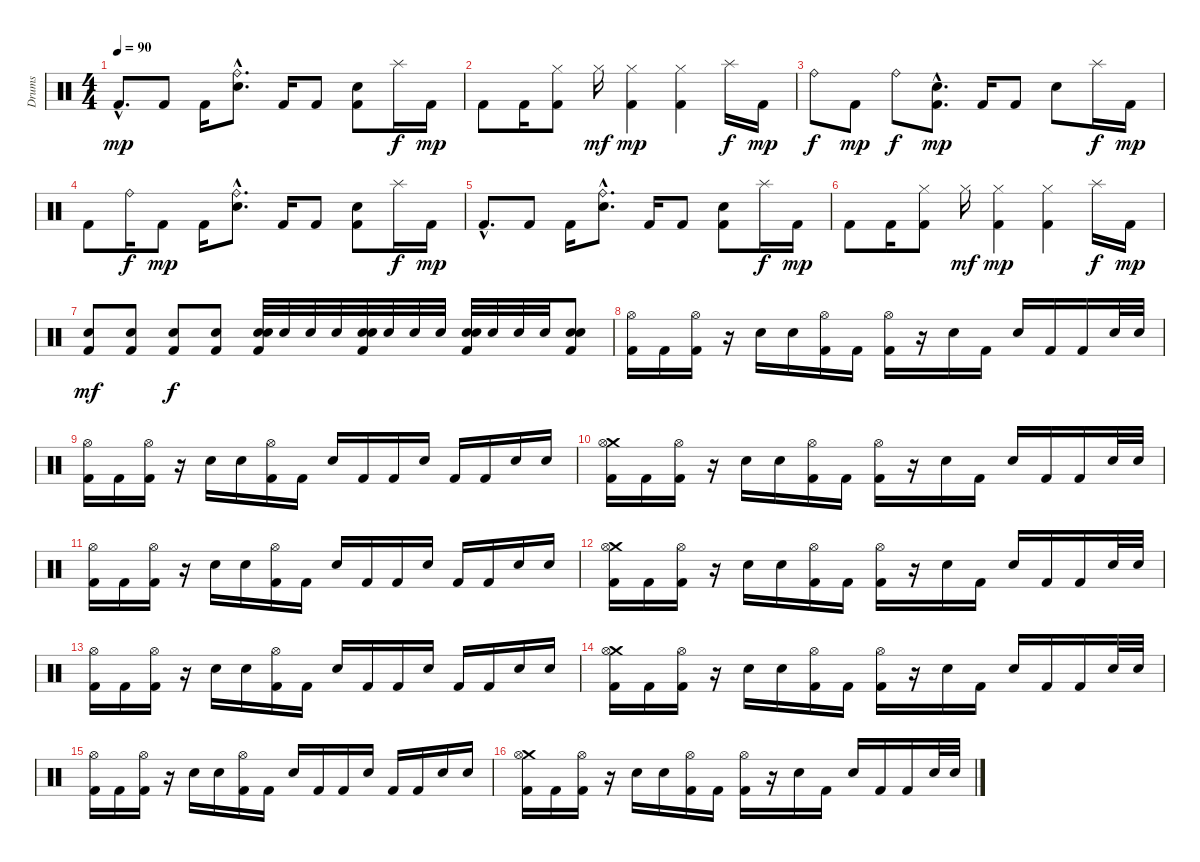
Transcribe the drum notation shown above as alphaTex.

\track ("Drums" "Drums") {instrument percussion}
\staff {score}
\articulation defaults
\ts (4 4)
\tempo 90
\clef neutral
\ks c "Kick (hit) 2"{hac}.8{d dy mp} "Kick (hit) 2".8 "Kick (hit) 2".16
("Ride (bell)"{hac} "Snare (hit) 2"{hac}).8{d} "Kick (hit) 2".16 "Kick (hit) 2".8 ("Snare (hit) 2" "Kick (hit) 2").8 "Splash (hit)".16{dy f} "Kick (hit) 2".16{dy mp} |
"Kick (hit) 2".8 "Kick (hit) 2".16 ("Hi-Hat (closed)" "Kick (hit) 2").8 "Hi-Hat (closed)".16{dy mf} ("Hi-Hat (closed)" "Kick (hit) 2").4{dy mp} ("Hi-Hat (closed)" "Kick (hit) 2").4 "Splash (hit)".16{dy f} "Kick (hit) 2".16{dy mp} |
"Ride (bell)".8{dy f} "Kick (hit) 2".8{dy mp} "Ride (bell)".8{dy f} ("Snare (hit) 2"{hac} "Kick (hit) 2"{hac}).8{d dy mp} "Kick (hit) 2".16 "Kick (hit) 2".8 "Snare (hit) 2".8 "Splash (hit)".16{dy f} "Kick (hit) 2".16{dy mp} |
"Kick (hit) 2".8 "Ride (bell)".16{dy f} "Kick (hit) 2".8{dy mp} "Kick (hit) 2".16 ("Ride (bell)"{hac} "Snare (hit) 2"{hac}).8{d} "Kick (hit) 2".16 "Kick (hit) 2".8 ("Snare (hit) 2" "Kick (hit) 2").8 "Splash (hit)".16{dy f} "Kick (hit) 2".16{dy mp} |
"Kick (hit) 2"{hac}.8{d} "Kick (hit) 2".8 "Kick (hit) 2".16 ("Ride (bell)"{hac} "Snare (hit) 2"{hac}).8{d} "Kick (hit) 2".16 "Kick (hit) 2".8 ("Snare (hit) 2" "Kick (hit) 2").8 "Splash (hit)".16{dy f} "Kick (hit) 2".16{dy mp} |
"Kick (hit) 2".8 "Kick (hit) 2".16 ("Hi-Hat (closed)" "Kick (hit) 2").8 "Hi-Hat (closed)".16{dy mf} ("Hi-Hat (closed)" "Kick (hit) 2").4{dy mp} ("Hi-Hat (closed)" "Kick (hit) 2").4 "Splash (hit)".16{dy f} "Kick (hit) 2".16{dy mp} |
("Snare (hit) 2" "Kick (hit) 2").8{dy mf} ("Snare (hit) 2" "Kick (hit) 2").8 ("Snare (hit) 2" "Kick (hit) 2").8{dy f} ("Snare (hit) 2" "Kick (hit) 2").8 ("Electric Snare (hit)" "Snare (hit) 2" "Kick (hit) 2").32 "Electric Snare (hit)".32 "Electric Snare (hit)".32 "Electric Snare (hit)".32 ("Electric Snare (hit)" "Snare (hit) 2" "Kick (hit) 2").32 "Electric Snare (hit)".32 "Electric Snare (hit)".32 "Electric Snare (hit)".32 ("Electric Snare (hit)" "Snare (hit) 2" "Kick (hit) 2").32 "Electric Snare (hit)".32 "Electric Snare (hit)".32 "Electric Snare (hit)".32 ("Electric Snare (hit)" "Snare (hit) 2" "Kick (hit) 2").8 |
("Hi-Hat (open)" "Kick (hit) 2").16 "Kick (hit) 2".16 ("Hi-Hat (open)" "Kick (hit) 2").16 r.16 "Electric Snare (hit)".16 "Electric Snare (hit)".16 ("Hi-Hat (open)" "Kick (hit) 2").16 "Kick (hit) 2".16 ("Hi-Hat (open)" "Kick (hit) 2").16 r.16 "Electric Snare (hit)".16 "Kick (hit) 2".16 "Electric Snare (hit)".16 "Kick (hit) 2".16 "Kick (hit) 2".16 "Electric Snare (hit)".32 "Electric Snare (hit)".32 |
("Hi-Hat (open)" "Kick (hit) 2").16 "Kick (hit) 2".16 ("Hi-Hat (open)" "Kick (hit) 2").16 r.16 "Electric Snare (hit)".16 "Electric Snare (hit)".16 ("Hi-Hat (open)" "Kick (hit) 2").16 "Kick (hit) 2".16 "Electric Snare (hit)".16 "Kick (hit) 2".16 "Kick (hit) 2".16 "Electric Snare (hit)".16 "Kick (hit) 2".16 "Kick (hit) 2".16 "Electric Snare (hit)".16 "Snare (hit) 2".16 |
("Crash medium (hit)" "Hi-Hat (open)" "Kick (hit) 2").16 "Kick (hit) 2".16 ("Hi-Hat (open)" "Kick (hit) 2").16 r.16 "Electric Snare (hit)".16 "Electric Snare (hit)".16 ("Hi-Hat (open)" "Kick (hit) 2").16 "Kick (hit) 2".16 ("Hi-Hat (open)" "Kick (hit) 2").16 r.16 "Electric Snare (hit)".16 "Kick (hit) 2".16 "Electric Snare (hit)".16 "Kick (hit) 2".16 "Kick (hit) 2".16 "Electric Snare (hit)".32 "Electric Snare (hit)".32 |
("Hi-Hat (open)" "Kick (hit) 2").16 "Kick (hit) 2".16 ("Hi-Hat (open)" "Kick (hit) 2").16 r.16 "Electric Snare (hit)".16 "Electric Snare (hit)".16 ("Hi-Hat (open)" "Kick (hit) 2").16 "Kick (hit) 2".16 "Electric Snare (hit)".16 "Kick (hit) 2".16 "Kick (hit) 2".16 "Electric Snare (hit)".16 "Kick (hit) 2".16 "Kick (hit) 2".16 "Electric Snare (hit)".16 "Snare (hit) 2".16 |
("Crash medium (hit)" "Hi-Hat (open)" "Kick (hit) 2").16 "Kick (hit) 2".16 ("Hi-Hat (open)" "Kick (hit) 2").16 r.16 "Electric Snare (hit)".16 "Electric Snare (hit)".16 ("Hi-Hat (open)" "Kick (hit) 2").16 "Kick (hit) 2".16 ("Hi-Hat (open)" "Kick (hit) 2").16 r.16 "Electric Snare (hit)".16 "Kick (hit) 2".16 "Electric Snare (hit)".16 "Kick (hit) 2".16 "Kick (hit) 2".16 "Electric Snare (hit)".32 "Electric Snare (hit)".32 |
("Hi-Hat (open)" "Kick (hit) 2").16 "Kick (hit) 2".16 ("Hi-Hat (open)" "Kick (hit) 2").16 r.16 "Electric Snare (hit)".16 "Electric Snare (hit)".16 ("Hi-Hat (open)" "Kick (hit) 2").16 "Kick (hit) 2".16 "Electric Snare (hit)".16 "Kick (hit) 2".16 "Kick (hit) 2".16 "Electric Snare (hit)".16 "Kick (hit) 2".16 "Kick (hit) 2".16 "Electric Snare (hit)".16 "Snare (hit) 2".16 |
("Crash medium (hit)" "Hi-Hat (open)" "Kick (hit) 2").16 "Kick (hit) 2".16 ("Hi-Hat (open)" "Kick (hit) 2").16 r.16 "Electric Snare (hit)".16 "Electric Snare (hit)".16 ("Hi-Hat (open)" "Kick (hit) 2").16 "Kick (hit) 2".16 ("Hi-Hat (open)" "Kick (hit) 2").16 r.16 "Electric Snare (hit)".16 "Kick (hit) 2".16 "Electric Snare (hit)".16 "Kick (hit) 2".16 "Kick (hit) 2".16 "Electric Snare (hit)".32 "Electric Snare (hit)".32 |
("Hi-Hat (open)" "Kick (hit) 2").16 "Kick (hit) 2".16 ("Hi-Hat (open)" "Kick (hit) 2").16 r.16 "Electric Snare (hit)".16 "Electric Snare (hit)".16 ("Hi-Hat (open)" "Kick (hit) 2").16 "Kick (hit) 2".16 "Electric Snare (hit)".16 "Kick (hit) 2".16 "Kick (hit) 2".16 "Electric Snare (hit)".16 "Kick (hit) 2".16 "Kick (hit) 2".16 "Electric Snare (hit)".16 "Snare (hit) 2".16 |
("Crash medium (hit)" "Hi-Hat (open)" "Kick (hit) 2").16 "Kick (hit) 2".16 ("Hi-Hat (open)" "Kick (hit) 2").16 r.16 "Electric Snare (hit)".16 "Electric Snare (hit)".16 ("Hi-Hat (open)" "Kick (hit) 2").16 "Kick (hit) 2".16 ("Hi-Hat (open)" "Kick (hit) 2").16 r.16 "Electric Snare (hit)".16 "Kick (hit) 2".16 "Electric Snare (hit)".16 "Kick (hit) 2".16 "Kick (hit) 2".16 "Electric Snare (hit)".32 "Electric Snare (hit)".32
